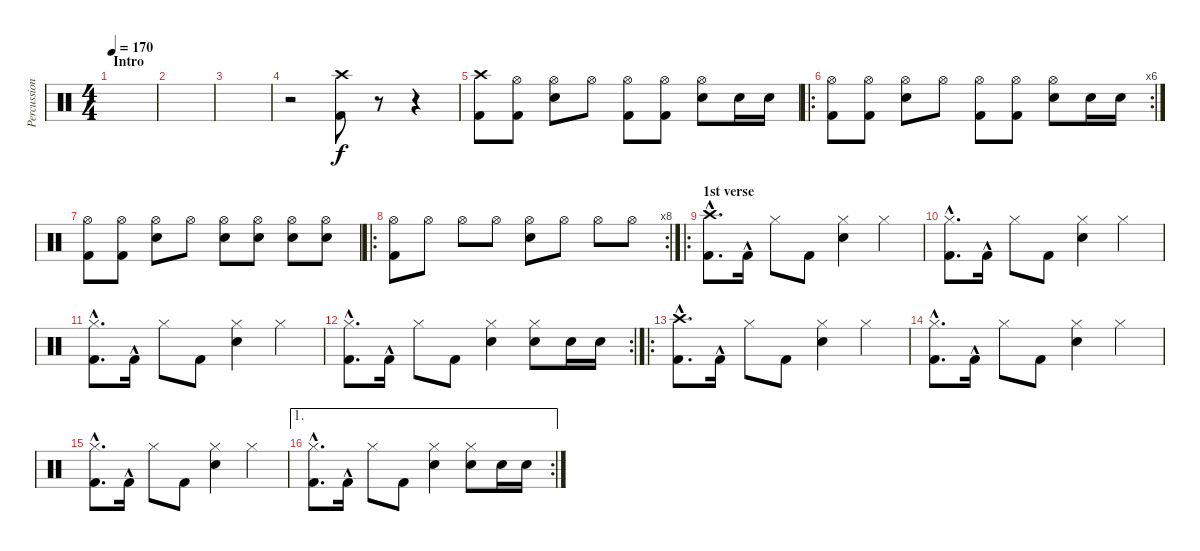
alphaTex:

\track ("Percussion" "Percussion") {instrument percussion}
\staff {score}
\articulation defaults
\ts (4 4)
\section ("" "Intro")
\tempo 170
\clef neutral
\ks c
|
|
|
r.2 ("Crash high (hit)" "Kick (hit) 2").8 r.8 r.4 |
("Crash high (hit)" "Kick (hit) 2").8 ("Hi-Hat (open)" "Kick (hit) 2").8 ("Hi-Hat (open)" "Electric Snare (hit)").8 "Hi-Hat (open)".8 ("Hi-Hat (open)" "Kick (hit) 2").8 ("Hi-Hat (open)" "Kick (hit) 2").8 ("Hi-Hat (open)" "Electric Snare (hit)").8 "Electric Snare (hit)".16 "Electric Snare (hit)".16 |
\ro
\rc 6
("Hi-Hat (open)" "Kick (hit) 2").8 ("Hi-Hat (open)" "Kick (hit) 2").8 ("Hi-Hat (open)" "Electric Snare (hit)").8 "Hi-Hat (open)".8 ("Hi-Hat (open)" "Kick (hit) 2").8 ("Hi-Hat (open)" "Kick (hit) 2").8 ("Hi-Hat (open)" "Electric Snare (hit)").8 "Electric Snare (hit)".16 "Electric Snare (hit)".16 |
("Hi-Hat (open)" "Kick (hit) 2").8 ("Hi-Hat (open)" "Kick (hit) 2").8 ("Hi-Hat (open)" "Electric Snare (hit)").8 "Hi-Hat (open)".8 ("Hi-Hat (open)" "Electric Snare (hit)").8 ("Hi-Hat (open)" "Electric Snare (hit)").8 ("Hi-Hat (open)" "Electric Snare (hit)").8 ("Hi-Hat (open)" "Electric Snare (hit)").8 |
\ro
\rc 8
("Hi-Hat (open)" "Kick (hit) 2").8 "Hi-Hat (open)".8 "Hi-Hat (open)".8 "Hi-Hat (open)".8 ("Hi-Hat (open)" "Electric Snare (hit)").8 "Hi-Hat (open)".8 "Hi-Hat (open)".8 "Hi-Hat (open)".8 |
\ro
\section ("" "1st verse")
("Crash high (hit)" "Kick (hit) 2"{hac}).8{d} "Kick (hit) 2"{hac}.16 "Hi-Hat (closed)".8 "Kick (hit) 2".8 ("Hi-Hat (closed)" "Electric Snare (hit)").4 "Hi-Hat (closed)".4 |
("Hi-Hat (closed)" "Kick (hit) 2"{hac}).8{d} "Kick (hit) 2"{hac}.16 "Hi-Hat (closed)".8 "Kick (hit) 2".8 ("Hi-Hat (closed)" "Electric Snare (hit)").4 "Hi-Hat (closed)".4 |
("Hi-Hat (closed)" "Kick (hit) 2"{hac}).8{d} "Kick (hit) 2"{hac}.16 "Hi-Hat (closed)".8 "Kick (hit) 2".8 ("Hi-Hat (closed)" "Electric Snare (hit)").4 "Hi-Hat (closed)".4 |
\rc 2
("Hi-Hat (closed)" "Kick (hit) 2"{hac}).8{d} "Kick (hit) 2"{hac}.16 "Hi-Hat (closed)".8 "Kick (hit) 2".8 ("Hi-Hat (closed)" "Electric Snare (hit)").4 ("Hi-Hat (closed)" "Electric Snare (hit)").8 "Electric Snare (hit)".16 "Electric Snare (hit)".16 |
\ro
("Crash high (hit)" "Kick (hit) 2"{hac}).8{d} "Kick (hit) 2"{hac}.16 "Hi-Hat (closed)".8 "Kick (hit) 2".8 ("Hi-Hat (closed)" "Electric Snare (hit)").4 "Hi-Hat (closed)".4 |
("Hi-Hat (closed)" "Kick (hit) 2"{hac}).8{d} "Kick (hit) 2"{hac}.16 "Hi-Hat (closed)".8 "Kick (hit) 2".8 ("Hi-Hat (closed)" "Electric Snare (hit)").4 "Hi-Hat (closed)".4 |
("Hi-Hat (closed)" "Kick (hit) 2"{hac}).8{d} "Kick (hit) 2"{hac}.16 "Hi-Hat (closed)".8 "Kick (hit) 2".8 ("Hi-Hat (closed)" "Electric Snare (hit)").4 "Hi-Hat (closed)".4 |
\ae 1
\rc 2
("Hi-Hat (closed)" "Kick (hit) 2"{hac}).8{d} "Kick (hit) 2"{hac}.16 "Hi-Hat (closed)".8 "Kick (hit) 2".8 ("Hi-Hat (closed)" "Electric Snare (hit)").4 ("Hi-Hat (closed)" "Electric Snare (hit)").8 "Electric Snare (hit)".16 "Electric Snare (hit)".16
